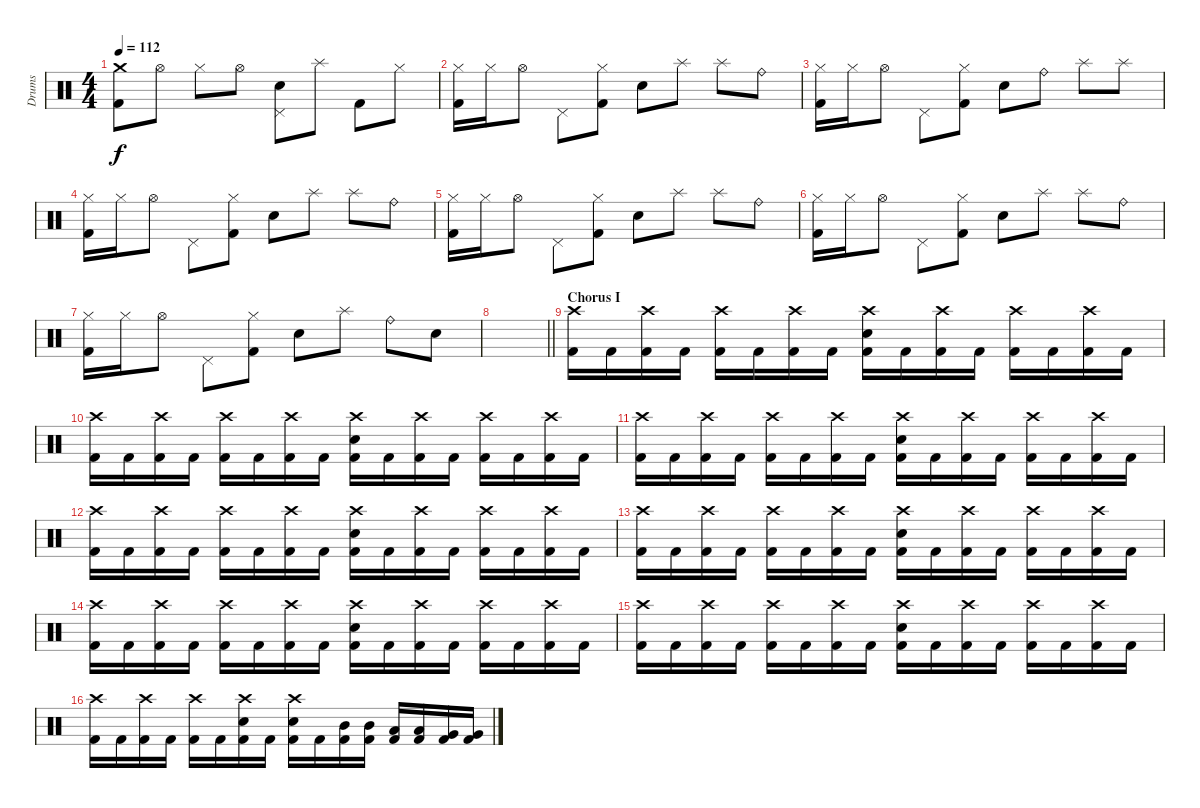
\track ("Drums" "Drums") {instrument percussion}
\staff {score}
\articulation defaults
\ts (4 4)
\tempo 112
\clef neutral
\ks c
("Kick (hit) 2" "Crash medium (hit)").8{dy f} "Hi-Hat (open)".8 "Hi-Hat (closed)".8 "Hi-Hat (open)".8 ("Snare (hit) 2" "Pedal Hi-Hat (hit)").8 "Splash (hit)".8 "Kick (hit) 2".8 "Hi-Hat (closed)".8 |
("Kick (hit) 2" "Hi-Hat (closed)").16 "Hi-Hat (closed)".16 "Hi-Hat (open)".8 "Pedal Hi-Hat (hit)".8 ("Kick (hit) 2" "Hi-Hat (closed)").8 "Snare (hit) 2".8 "Splash (hit)".8 "Splash (hit)".8 "Ride (bell)".8 |
("Kick (hit) 2" "Hi-Hat (closed)").16 "Hi-Hat (closed)".16 "Hi-Hat (open)".8 "Pedal Hi-Hat (hit)".8 ("Kick (hit) 2" "Hi-Hat (closed)").8 "Snare (hit) 2".8 "Ride (bell)".8 "Splash (hit)".8 "Splash (hit)".8 |
("Kick (hit) 2" "Hi-Hat (closed)").16 "Hi-Hat (closed)".16 "Hi-Hat (open)".8 "Pedal Hi-Hat (hit)".8 ("Kick (hit) 2" "Hi-Hat (closed)").8 "Snare (hit) 2".8 "Splash (hit)".8 "Splash (hit)".8 "Ride (bell)".8 |
("Kick (hit) 2" "Hi-Hat (closed)").16 "Hi-Hat (closed)".16 "Hi-Hat (open)".8 "Pedal Hi-Hat (hit)".8 ("Kick (hit) 2" "Hi-Hat (closed)").8 "Snare (hit) 2".8 "Splash (hit)".8 "Splash (hit)".8 "Ride (bell)".8 |
("Kick (hit) 2" "Hi-Hat (closed)").16 "Hi-Hat (closed)".16 "Hi-Hat (open)".8 "Pedal Hi-Hat (hit)".8 ("Kick (hit) 2" "Hi-Hat (closed)").8 "Snare (hit) 2".8 "Splash (hit)".8 "Splash (hit)".8 "Ride (bell)".8 |
("Kick (hit) 2" "Hi-Hat (closed)").16 "Hi-Hat (closed)".16 "Hi-Hat (open)".8 "Pedal Hi-Hat (hit)".8 ("Kick (hit) 2" "Hi-Hat (closed)").8 "Snare (hit) 2".8 "Splash (hit)".8 "Ride (bell)".8 "Snare (hit) 2".8 |
\barLineRight lightlight
|
\section ("" "Chorus I")
("Crash high (hit)" "Kick (hit) 2").16 "Kick (hit) 2".16 ("Kick (hit) 2" "Crash high (hit)").16 "Kick (hit) 2".16 ("Crash high (hit)" "Kick (hit) 2").16 "Kick (hit) 2".16 ("Kick (hit) 2" "Crash high (hit)").16 "Kick (hit) 2".16 ("Crash high (hit)" "Kick (hit) 2" "Snare (hit) 2").16 "Kick (hit) 2".16 ("Kick (hit) 2" "Crash high (hit)").16 "Kick (hit) 2".16 ("Crash high (hit)" "Kick (hit) 2").16 "Kick (hit) 2".16 ("Kick (hit) 2" "Crash high (hit)").16 "Kick (hit) 2".16 |
("Crash high (hit)" "Kick (hit) 2").16 "Kick (hit) 2".16 ("Kick (hit) 2" "Crash high (hit)").16 "Kick (hit) 2".16 ("Crash high (hit)" "Kick (hit) 2").16 "Kick (hit) 2".16 ("Kick (hit) 2" "Crash high (hit)").16 "Kick (hit) 2".16 ("Crash high (hit)" "Kick (hit) 2" "Snare (hit) 2").16 "Kick (hit) 2".16 ("Kick (hit) 2" "Crash high (hit)").16 "Kick (hit) 2".16 ("Crash high (hit)" "Kick (hit) 2").16 "Kick (hit) 2".16 ("Kick (hit) 2" "Crash high (hit)").16 "Kick (hit) 2".16 |
("Crash high (hit)" "Kick (hit) 2").16 "Kick (hit) 2".16 ("Kick (hit) 2" "Crash high (hit)").16 "Kick (hit) 2".16 ("Crash high (hit)" "Kick (hit) 2").16 "Kick (hit) 2".16 ("Kick (hit) 2" "Crash high (hit)").16 "Kick (hit) 2".16 ("Crash high (hit)" "Kick (hit) 2" "Snare (hit) 2").16 "Kick (hit) 2".16 ("Kick (hit) 2" "Crash high (hit)").16 "Kick (hit) 2".16 ("Crash high (hit)" "Kick (hit) 2").16 "Kick (hit) 2".16 ("Kick (hit) 2" "Crash high (hit)").16 "Kick (hit) 2".16 |
("Crash high (hit)" "Kick (hit) 2").16 "Kick (hit) 2".16 ("Kick (hit) 2" "Crash high (hit)").16 "Kick (hit) 2".16 ("Crash high (hit)" "Kick (hit) 2").16 "Kick (hit) 2".16 ("Kick (hit) 2" "Crash high (hit)").16 "Kick (hit) 2".16 ("Crash high (hit)" "Kick (hit) 2" "Snare (hit) 2").16 "Kick (hit) 2".16 ("Kick (hit) 2" "Crash high (hit)").16 "Kick (hit) 2".16 ("Crash high (hit)" "Kick (hit) 2").16 "Kick (hit) 2".16 ("Kick (hit) 2" "Crash high (hit)").16 "Kick (hit) 2".16 |
("Crash high (hit)" "Kick (hit) 2").16 "Kick (hit) 2".16 ("Kick (hit) 2" "Crash high (hit)").16 "Kick (hit) 2".16 ("Crash high (hit)" "Kick (hit) 2").16 "Kick (hit) 2".16 ("Kick (hit) 2" "Crash high (hit)").16 "Kick (hit) 2".16 ("Crash high (hit)" "Kick (hit) 2" "Snare (hit) 2").16 "Kick (hit) 2".16 ("Kick (hit) 2" "Crash high (hit)").16 "Kick (hit) 2".16 ("Crash high (hit)" "Kick (hit) 2").16 "Kick (hit) 2".16 ("Kick (hit) 2" "Crash high (hit)").16 "Kick (hit) 2".16 |
("Crash high (hit)" "Kick (hit) 2").16 "Kick (hit) 2".16 ("Kick (hit) 2" "Crash high (hit)").16 "Kick (hit) 2".16 ("Crash high (hit)" "Kick (hit) 2").16 "Kick (hit) 2".16 ("Kick (hit) 2" "Crash high (hit)").16 "Kick (hit) 2".16 ("Crash high (hit)" "Kick (hit) 2" "Snare (hit) 2").16 "Kick (hit) 2".16 ("Kick (hit) 2" "Crash high (hit)").16 "Kick (hit) 2".16 ("Crash high (hit)" "Kick (hit) 2").16 "Kick (hit) 2".16 ("Kick (hit) 2" "Crash high (hit)").16 "Kick (hit) 2".16 |
("Crash high (hit)" "Kick (hit) 2").16 "Kick (hit) 2".16 ("Kick (hit) 2" "Crash high (hit)").16 "Kick (hit) 2".16 ("Crash high (hit)" "Kick (hit) 2").16 "Kick (hit) 2".16 ("Kick (hit) 2" "Crash high (hit)").16 "Kick (hit) 2".16 ("Crash high (hit)" "Kick (hit) 2" "Snare (hit) 2").16 "Kick (hit) 2".16 ("Kick (hit) 2" "Crash high (hit)").16 "Kick (hit) 2".16 ("Crash high (hit)" "Kick (hit) 2").16 "Kick (hit) 2".16 ("Kick (hit) 2" "Crash high (hit)").16 "Kick (hit) 2".16 |
("Crash high (hit)" "Kick (hit) 2").16 "Kick (hit) 2".16 ("Kick (hit) 2" "Crash high (hit)").16 "Kick (hit) 2".16 ("Crash high (hit)" "Kick (hit) 2").16 "Kick (hit) 2".16 ("Kick (hit) 2" "Crash high (hit)" "Snare (hit) 2").16 "Kick (hit) 2".16 ("Crash high (hit)" "Kick (hit) 2" "Snare (hit) 2").16 "Kick (hit) 2".16 ("Kick (hit) 2" "Mid Tom (hit)").16 ("Kick (hit) 2" "Mid Tom (hit)").16 ("Low Tom (hit)" "Kick (hit) 2").16 ("Kick (hit) 2" "Low Tom (hit)").16 ("Kick (hit) 2" "Very Low Tom (hit)").16 ("Kick (hit) 2" "Very Low Tom (hit)").16
